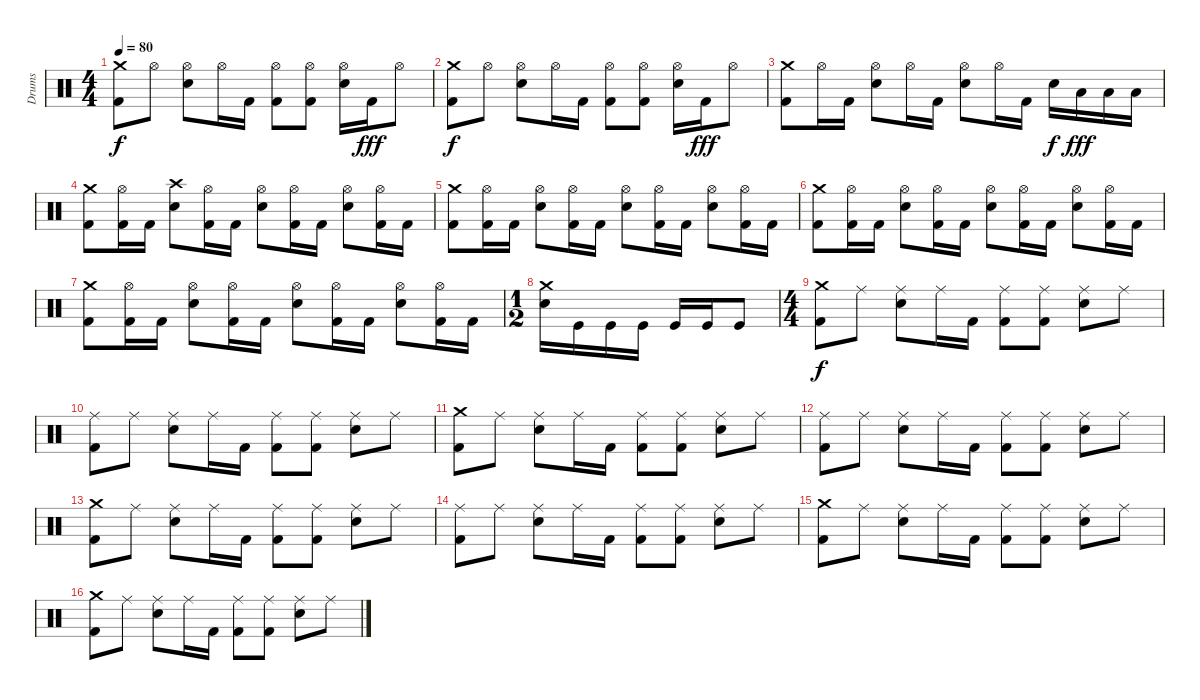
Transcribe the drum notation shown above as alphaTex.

\track ("Drums" "Drums") {instrument percussion}
\staff {score}
\articulation defaults
\ts (4 4)
\tempo 80
\clef neutral
\ks c
("Crash medium (hit)" "Kick (hit) 2").8{dy f} "Hi-Hat (open)".8 ("Hi-Hat (open)" "Snare (hit) 2").8 "Hi-Hat (open)".16 "Kick (hit) 2".16 ("Hi-Hat (open)" "Kick (hit) 2").8 ("Hi-Hat (open)" "Kick (hit) 2").8 ("Hi-Hat (open)" "Snare (hit) 2").16 "Kick (hit) 2".16{dy fff} "Hi-Hat (open)".8 |
("Crash medium (hit)" "Kick (hit) 2").8{dy f} "Hi-Hat (open)".8 ("Hi-Hat (open)" "Snare (hit) 2").8 "Hi-Hat (open)".16 "Kick (hit) 2".16 ("Hi-Hat (open)" "Kick (hit) 2").8 ("Hi-Hat (open)" "Kick (hit) 2").8 ("Hi-Hat (open)" "Snare (hit) 2").16 "Kick (hit) 2".16{dy fff} "Hi-Hat (open)".8 |
("Crash medium (hit)" "Kick (hit) 2").8 "Hi-Hat (open)".16 "Kick (hit) 2".16 ("Hi-Hat (open)" "Snare (hit) 2").8 "Hi-Hat (open)".16 "Kick (hit) 2".16 ("Hi-Hat (open)" "Snare (hit) 2").8 "Hi-Hat (open)".16 "Kick (hit) 2".16 "Snare (hit) 2".16{dy f} "Low Floor Tom (hit)".16{dy fff} "Low Tom (hit)".16 "Low Floor Tom (hit)".16 |
("Crash medium (hit)" "Kick (hit) 2").8 ("Hi-Hat (open)" "Kick (hit) 2").16 "Kick (hit) 2".16 ("Crash high (hit)" "Snare (hit) 2").8 ("Hi-Hat (open)" "Kick (hit) 2").16 "Kick (hit) 2".16 ("Hi-Hat (open)" "Snare (hit) 2").8 ("Hi-Hat (open)" "Kick (hit) 2").16 "Kick (hit) 2".16 ("Hi-Hat (open)" "Snare (hit) 2").8 ("Hi-Hat (open)" "Kick (hit) 2").16 "Kick (hit) 2".16 |
("Crash medium (hit)" "Kick (hit) 2").8 ("Hi-Hat (open)" "Kick (hit) 2").16 "Kick (hit) 2".16 ("Hi-Hat (open)" "Snare (hit) 2").8 ("Hi-Hat (open)" "Kick (hit) 2").16 "Kick (hit) 2".16 ("Hi-Hat (open)" "Snare (hit) 2").8 ("Hi-Hat (open)" "Kick (hit) 2").16 "Kick (hit) 2".16 ("Hi-Hat (open)" "Snare (hit) 2").8 ("Hi-Hat (open)" "Kick (hit) 2").16 "Kick (hit) 2".16 |
("Crash medium (hit)" "Kick (hit) 2").8 ("Hi-Hat (open)" "Kick (hit) 2").16 "Kick (hit) 2".16 ("Hi-Hat (open)" "Snare (hit) 2").8 ("Hi-Hat (open)" "Kick (hit) 2").16 "Kick (hit) 2".16 ("Hi-Hat (open)" "Snare (hit) 2").8 ("Hi-Hat (open)" "Kick (hit) 2").16 "Kick (hit) 2".16 ("Hi-Hat (open)" "Snare (hit) 2").8 ("Hi-Hat (open)" "Kick (hit) 2").16 "Kick (hit) 2".16 |
("Crash medium (hit)" "Kick (hit) 2").8 ("Hi-Hat (open)" "Kick (hit) 2").16 "Kick (hit) 2".16 ("Hi-Hat (open)" "Snare (hit) 2").8 ("Hi-Hat (open)" "Kick (hit) 2").16 "Kick (hit) 2".16 ("Hi-Hat (open)" "Snare (hit) 2").8 ("Hi-Hat (open)" "Kick (hit) 2").16 "Kick (hit) 2".16 ("Hi-Hat (open)" "Snare (hit) 2").8 ("Hi-Hat (open)" "Kick (hit) 2").16 "Kick (hit) 2".16 |
\ts (1 2)
("Crash medium (hit)" "Snare (hit) 2").16 "Kick (hit)".16 "Kick (hit)".16 "Kick (hit)".16 "Kick (hit)".16 "Kick (hit)".16 "Kick (hit)".8 |
\ts (4 4)
("Crash medium (hit)" "Kick (hit) 2").8{dy f} "Ride (middle)".8 ("Ride (middle)" "Snare (hit) 2").8 "Ride (middle)".16 "Kick (hit) 2".16 ("Ride (middle)" "Kick (hit) 2").8 ("Ride (middle)" "Kick (hit) 2").8 ("Ride (middle)" "Snare (hit) 2").8 "Ride (middle)".8 |
("Ride (middle)" "Kick (hit) 2").8 "Ride (middle)".8 ("Ride (middle)" "Snare (hit) 2").8 "Ride (middle)".16 "Kick (hit) 2".16 ("Ride (middle)" "Kick (hit) 2").8 ("Ride (middle)" "Kick (hit) 2").8 ("Ride (middle)" "Snare (hit) 2").8 "Ride (middle)".8 |
("Crash medium (hit)" "Kick (hit) 2").8 "Ride (middle)".8 ("Ride (middle)" "Snare (hit) 2").8 "Ride (middle)".16 "Kick (hit) 2".16 ("Ride (middle)" "Kick (hit) 2").8 ("Ride (middle)" "Kick (hit) 2").8 ("Ride (middle)" "Snare (hit) 2").8 "Ride (middle)".8 |
("Ride (middle)" "Kick (hit) 2").8 "Ride (middle)".8 ("Ride (middle)" "Snare (hit) 2").8 "Ride (middle)".16 "Kick (hit) 2".16 ("Ride (middle)" "Kick (hit) 2").8 ("Ride (middle)" "Kick (hit) 2").8 ("Ride (middle)" "Snare (hit) 2").8 "Ride (middle)".8 |
("Crash medium (hit)" "Kick (hit) 2").8 "Ride (middle)".8 ("Ride (middle)" "Snare (hit) 2").8 "Ride (middle)".16 "Kick (hit) 2".16 ("Ride (middle)" "Kick (hit) 2").8 ("Ride (middle)" "Kick (hit) 2").8 ("Ride (middle)" "Snare (hit) 2").8 "Ride (middle)".8 |
("Ride (middle)" "Kick (hit) 2").8 "Ride (middle)".8 ("Ride (middle)" "Snare (hit) 2").8 "Ride (middle)".16 "Kick (hit) 2".16 ("Ride (middle)" "Kick (hit) 2").8 ("Ride (middle)" "Kick (hit) 2").8 ("Ride (middle)" "Snare (hit) 2").8 "Ride (middle)".8 |
("Crash medium (hit)" "Kick (hit) 2").8 "Ride (middle)".8 ("Ride (middle)" "Snare (hit) 2").8 "Ride (middle)".16 "Kick (hit) 2".16 ("Ride (middle)" "Kick (hit) 2").8 ("Ride (middle)" "Kick (hit) 2").8 ("Ride (middle)" "Snare (hit) 2").8 "Ride (middle)".8 |
("Crash medium (hit)" "Kick (hit) 2").8 "Ride (middle)".8 ("Ride (middle)" "Snare (hit) 2").8 "Ride (middle)".16 "Kick (hit) 2".16 ("Ride (middle)" "Kick (hit) 2").8 ("Ride (middle)" "Kick (hit) 2").8 ("Ride (middle)" "Snare (hit) 2").8 "Ride (middle)".8
